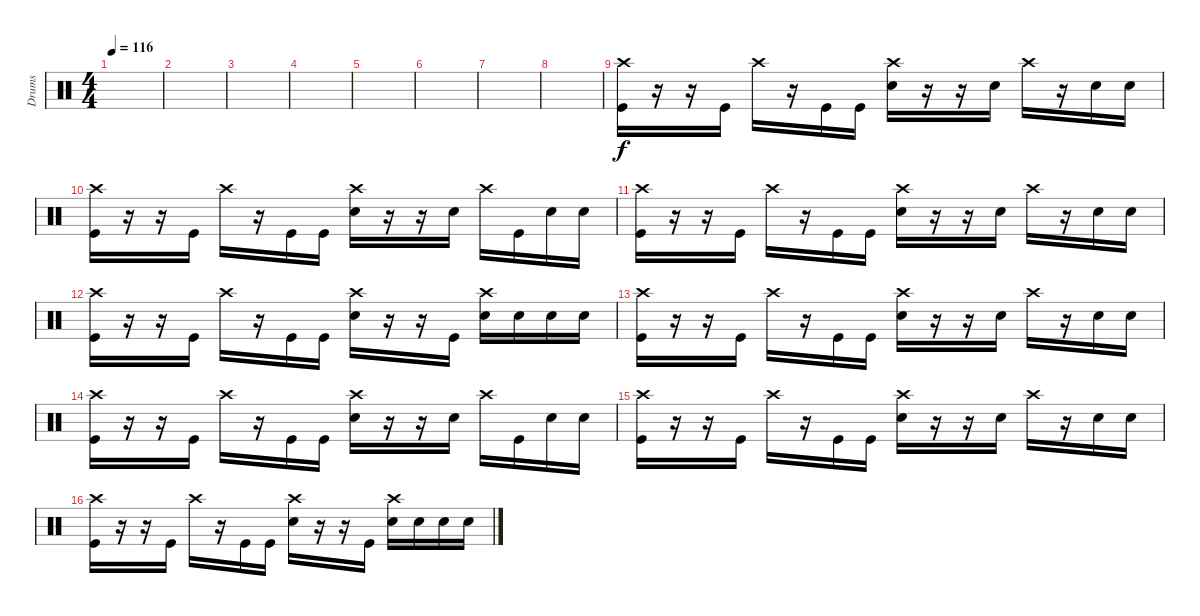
\track ("Drums" "Drums") {instrument percussion}
\staff {score}
\articulation defaults
\ts (4 4)
\tempo 116
\clef neutral
\ks c
|
|
|
|
|
|
|
|
("Crash high (hit)" "Kick (hit)").16 r.16 r.16 "Kick (hit)".16 "Crash high (hit)".16 r.16 "Kick (hit)".16 "Kick (hit)".16 ("Crash high (hit)" "Snare (hit) 2").16 r.16 r.16 "Snare (hit) 2".16 "Crash high (hit)".16 r.16 "Snare (hit) 2".16 "Snare (hit) 2".16 |
("Crash high (hit)" "Kick (hit)").16 r.16 r.16 "Kick (hit)".16 "Crash high (hit)".16 r.16 "Kick (hit)".16 "Kick (hit)".16 ("Crash high (hit)" "Snare (hit) 2").16 r.16 r.16 "Snare (hit) 2".16 "Crash high (hit)".16 "Kick (hit)".16 "Snare (hit) 2".16 "Snare (hit) 2".16 |
("Crash high (hit)" "Kick (hit)").16 r.16 r.16 "Kick (hit)".16 "Crash high (hit)".16 r.16 "Kick (hit)".16 "Kick (hit)".16 ("Crash high (hit)" "Snare (hit) 2").16 r.16 r.16 "Snare (hit) 2".16 "Crash high (hit)".16 r.16 "Snare (hit) 2".16 "Snare (hit) 2".16 |
("Crash high (hit)" "Kick (hit)").16 r.16 r.16 "Kick (hit)".16 "Crash high (hit)".16 r.16 "Kick (hit)".16 "Kick (hit)".16 ("Crash high (hit)" "Snare (hit) 2").16 r.16 r.16 "Kick (hit)".16 ("Crash high (hit)" "Snare (hit) 2").16 "Snare (hit) 2".16 "Snare (hit) 2".16 "Snare (hit) 2".16 |
("Crash high (hit)" "Kick (hit)").16 r.16 r.16 "Kick (hit)".16 "Crash high (hit)".16 r.16 "Kick (hit)".16 "Kick (hit)".16 ("Crash high (hit)" "Snare (hit) 2").16 r.16 r.16 "Snare (hit) 2".16 "Crash high (hit)".16 r.16 "Snare (hit) 2".16 "Snare (hit) 2".16 |
("Crash high (hit)" "Kick (hit)").16 r.16 r.16 "Kick (hit)".16 "Crash high (hit)".16 r.16 "Kick (hit)".16 "Kick (hit)".16 ("Crash high (hit)" "Snare (hit) 2").16 r.16 r.16 "Snare (hit) 2".16 "Crash high (hit)".16 "Kick (hit)".16 "Snare (hit) 2".16 "Snare (hit) 2".16 |
("Crash high (hit)" "Kick (hit)").16 r.16 r.16 "Kick (hit)".16 "Crash high (hit)".16 r.16 "Kick (hit)".16 "Kick (hit)".16 ("Crash high (hit)" "Snare (hit) 2").16 r.16 r.16 "Snare (hit) 2".16 "Crash high (hit)".16 r.16 "Snare (hit) 2".16 "Snare (hit) 2".16 |
("Crash high (hit)" "Kick (hit)").16 r.16 r.16 "Kick (hit)".16 "Crash high (hit)".16 r.16 "Kick (hit)".16 "Kick (hit)".16 ("Crash high (hit)" "Snare (hit) 2").16 r.16 r.16 "Kick (hit)".16 ("Crash high (hit)" "Snare (hit) 2").16 "Snare (hit) 2".16 "Snare (hit) 2".16 "Snare (hit) 2".16
